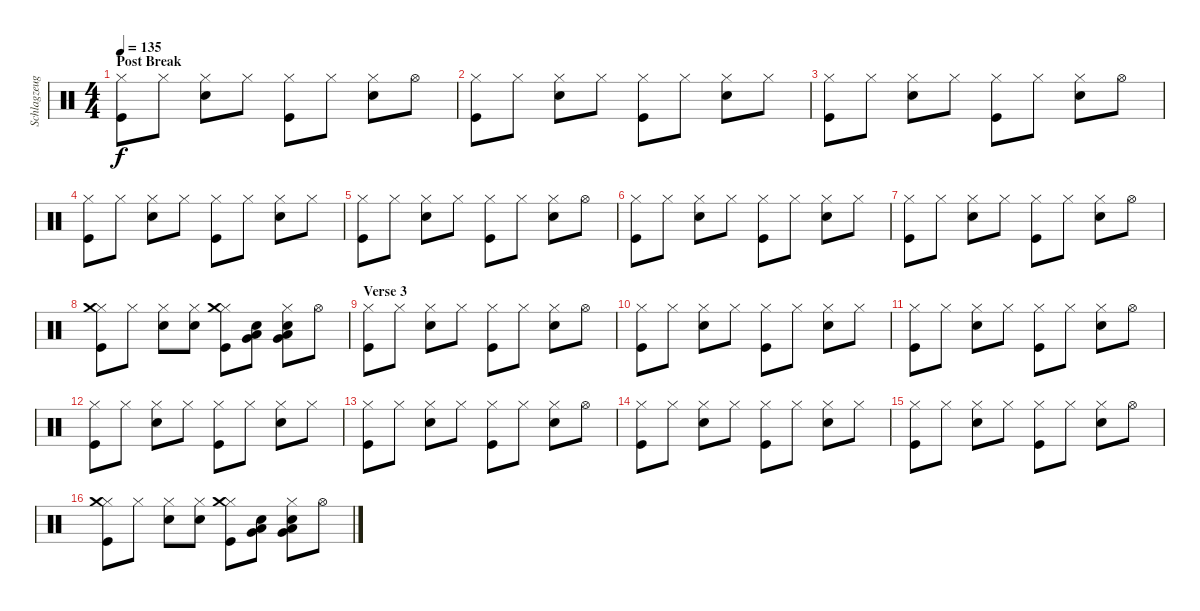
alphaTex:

\track ("Schlagzeug - Bela B." "Schlagzeug") {instrument percussion}
\staff {score}
\articulation defaults
\ts (4 4)
\section ("" "Post Break")
\tempo 135
\clef neutral
\ks c
("Kick (hit)" "Hi-Hat (closed)").8{dy f} "Hi-Hat (closed)".8 ("Electric Snare (hit)" "Hi-Hat (closed)").8 "Hi-Hat (closed)".8 ("Kick (hit)" "Hi-Hat (closed)").8 "Hi-Hat (closed)".8 ("Electric Snare (hit)" "Hi-Hat (closed)").8 "Hi-Hat (open)".8 |
("Kick (hit)" "Hi-Hat (closed)").8 "Hi-Hat (closed)".8 ("Electric Snare (hit)" "Hi-Hat (closed)").8 "Hi-Hat (closed)".8 ("Kick (hit)" "Hi-Hat (closed)").8 "Hi-Hat (closed)".8 ("Electric Snare (hit)" "Hi-Hat (closed)").8 "Hi-Hat (closed)".8 |
("Kick (hit)" "Hi-Hat (closed)").8 "Hi-Hat (closed)".8 ("Electric Snare (hit)" "Hi-Hat (closed)").8 "Hi-Hat (closed)".8 ("Kick (hit)" "Hi-Hat (closed)").8 "Hi-Hat (closed)".8 ("Electric Snare (hit)" "Hi-Hat (closed)").8 "Hi-Hat (open)".8 |
("Kick (hit)" "Hi-Hat (closed)").8 "Hi-Hat (closed)".8 ("Electric Snare (hit)" "Hi-Hat (closed)").8 "Hi-Hat (closed)".8 ("Kick (hit)" "Hi-Hat (closed)").8 "Hi-Hat (closed)".8 ("Electric Snare (hit)" "Hi-Hat (closed)").8 "Hi-Hat (closed)".8 |
("Kick (hit)" "Hi-Hat (closed)").8 "Hi-Hat (closed)".8 ("Electric Snare (hit)" "Hi-Hat (closed)").8 "Hi-Hat (closed)".8 ("Kick (hit)" "Hi-Hat (closed)").8 "Hi-Hat (closed)".8 ("Electric Snare (hit)" "Hi-Hat (closed)").8 "Hi-Hat (open)".8 |
("Kick (hit)" "Hi-Hat (closed)").8 "Hi-Hat (closed)".8 ("Electric Snare (hit)" "Hi-Hat (closed)").8 "Hi-Hat (closed)".8 ("Kick (hit)" "Hi-Hat (closed)").8 "Hi-Hat (closed)".8 ("Electric Snare (hit)" "Hi-Hat (closed)").8 "Hi-Hat (closed)".8 |
("Kick (hit)" "Hi-Hat (closed)").8 "Hi-Hat (closed)".8 ("Electric Snare (hit)" "Hi-Hat (closed)").8 "Hi-Hat (closed)".8 ("Kick (hit)" "Hi-Hat (closed)").8 "Hi-Hat (closed)".8 ("Electric Snare (hit)" "Hi-Hat (closed)").8 "Hi-Hat (open)".8 |
("Kick (hit)" "Hi-Hat (closed)" "Crash medium (hit)").8 "Hi-Hat (closed)".8 ("Electric Snare (hit)" "Hi-Hat (closed)").8 ("Hi-Hat (closed)" "Electric Snare (hit)").8 ("Kick (hit)" "Hi-Hat (closed)" "Crash medium (hit)").8 ("Electric Snare (hit)" "Low Floor Tom (hit)" "Very Low Tom (hit)").8 ("Electric Snare (hit)" "Hi-Hat (closed)" "Low Floor Tom (hit)" "Very Low Tom (hit)").8 "Hi-Hat (open)".8 |
\section ("" "Verse 3")
("Kick (hit)" "Hi-Hat (closed)").8 "Hi-Hat (closed)".8 ("Electric Snare (hit)" "Hi-Hat (closed)").8 "Hi-Hat (closed)".8 ("Kick (hit)" "Hi-Hat (closed)").8 "Hi-Hat (closed)".8 ("Electric Snare (hit)" "Hi-Hat (closed)").8 "Hi-Hat (open)".8 |
("Kick (hit)" "Hi-Hat (closed)").8 "Hi-Hat (closed)".8 ("Electric Snare (hit)" "Hi-Hat (closed)").8 "Hi-Hat (closed)".8 ("Kick (hit)" "Hi-Hat (closed)").8 "Hi-Hat (closed)".8 ("Electric Snare (hit)" "Hi-Hat (closed)").8 "Hi-Hat (closed)".8 |
("Kick (hit)" "Hi-Hat (closed)").8 "Hi-Hat (closed)".8 ("Electric Snare (hit)" "Hi-Hat (closed)").8 "Hi-Hat (closed)".8 ("Kick (hit)" "Hi-Hat (closed)").8 "Hi-Hat (closed)".8 ("Electric Snare (hit)" "Hi-Hat (closed)").8 "Hi-Hat (open)".8 |
("Kick (hit)" "Hi-Hat (closed)").8 "Hi-Hat (closed)".8 ("Electric Snare (hit)" "Hi-Hat (closed)").8 "Hi-Hat (closed)".8 ("Kick (hit)" "Hi-Hat (closed)").8 "Hi-Hat (closed)".8 ("Electric Snare (hit)" "Hi-Hat (closed)").8 "Hi-Hat (closed)".8 |
("Kick (hit)" "Hi-Hat (closed)").8 "Hi-Hat (closed)".8 ("Electric Snare (hit)" "Hi-Hat (closed)").8 "Hi-Hat (closed)".8 ("Kick (hit)" "Hi-Hat (closed)").8 "Hi-Hat (closed)".8 ("Electric Snare (hit)" "Hi-Hat (closed)").8 "Hi-Hat (open)".8 |
("Kick (hit)" "Hi-Hat (closed)").8 "Hi-Hat (closed)".8 ("Electric Snare (hit)" "Hi-Hat (closed)").8 "Hi-Hat (closed)".8 ("Kick (hit)" "Hi-Hat (closed)").8 "Hi-Hat (closed)".8 ("Electric Snare (hit)" "Hi-Hat (closed)").8 "Hi-Hat (closed)".8 |
("Kick (hit)" "Hi-Hat (closed)").8 "Hi-Hat (closed)".8 ("Electric Snare (hit)" "Hi-Hat (closed)").8 "Hi-Hat (closed)".8 ("Kick (hit)" "Hi-Hat (closed)").8 "Hi-Hat (closed)".8 ("Electric Snare (hit)" "Hi-Hat (closed)").8 "Hi-Hat (open)".8 |
("Kick (hit)" "Hi-Hat (closed)" "Crash medium (hit)").8 "Hi-Hat (closed)".8 ("Electric Snare (hit)" "Hi-Hat (closed)").8 ("Hi-Hat (closed)" "Electric Snare (hit)").8 ("Kick (hit)" "Hi-Hat (closed)" "Crash medium (hit)").8 ("Electric Snare (hit)" "Low Floor Tom (hit)" "Very Low Tom (hit)").8 ("Electric Snare (hit)" "Hi-Hat (closed)" "Low Floor Tom (hit)" "Very Low Tom (hit)").8 "Hi-Hat (open)".8
